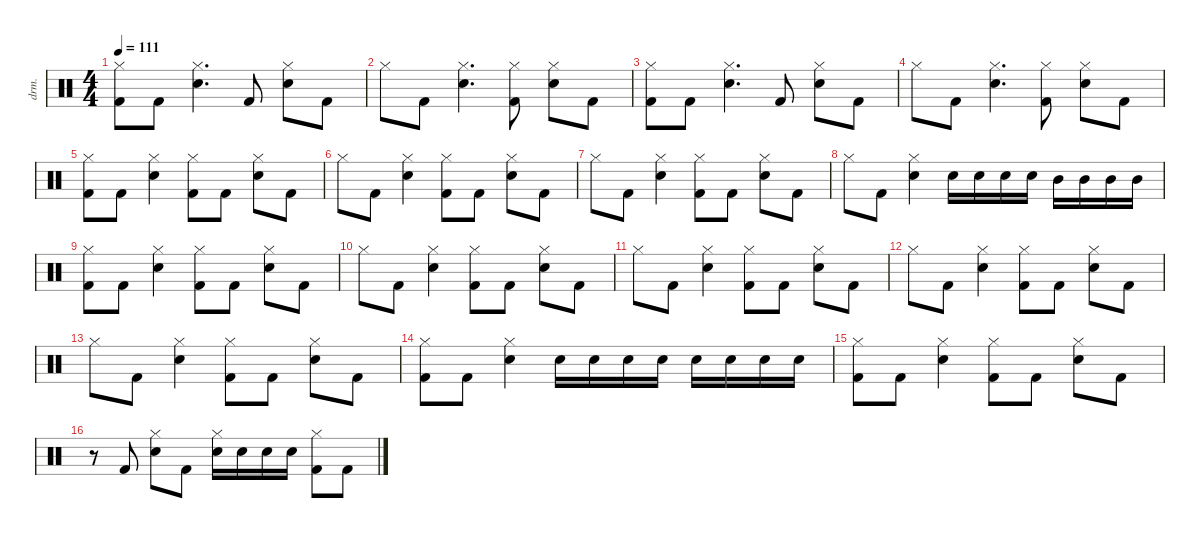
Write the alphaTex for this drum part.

\defaultSystemsLayout 4
\hideDynamics
\bracketExtendMode nobrackets
\otherSystemsTrackNameOrientation horizontal
\track ("Drums" "drm.") {instrument percussion}
\staff {score}
\articulation defaults
\ts (4 4)
\tempo 111
\clef neutral
\ks c
("Kick (hit) 2" "Hi-Hat (closed)").8{dy f} "Kick (hit) 2".8 ("Snare (hit) 2" "Hi-Hat (closed)").4{d} "Kick (hit) 2".8 ("Snare (hit) 2" "Hi-Hat (closed)").8 "Kick (hit) 2".8 |
"Hi-Hat (closed)".8 "Kick (hit) 2".8 ("Snare (hit) 2" "Hi-Hat (closed)").4{d} ("Kick (hit) 2" "Hi-Hat (closed)").8 ("Snare (hit) 2" "Hi-Hat (closed)").8 "Kick (hit) 2".8 |
("Kick (hit) 2" "Hi-Hat (closed)").8 "Kick (hit) 2".8 ("Snare (hit) 2" "Hi-Hat (closed)").4{d} "Kick (hit) 2".8 ("Snare (hit) 2" "Hi-Hat (closed)").8 "Kick (hit) 2".8 |
"Hi-Hat (closed)".8 "Kick (hit) 2".8 ("Snare (hit) 2" "Hi-Hat (closed)").4{d} ("Kick (hit) 2" "Hi-Hat (closed)").8 ("Snare (hit) 2" "Hi-Hat (closed)").8 "Kick (hit) 2".8 |
("Kick (hit) 2" "Hi-Hat (closed)").8 "Kick (hit) 2".8 ("Snare (hit) 2" "Hi-Hat (closed)").4 ("Kick (hit) 2" "Hi-Hat (closed)").8 "Kick (hit) 2".8 ("Snare (hit) 2" "Hi-Hat (closed)").8 "Kick (hit) 2".8 |
"Hi-Hat (closed)".8 "Kick (hit) 2".8 ("Snare (hit) 2" "Hi-Hat (closed)").4 ("Kick (hit) 2" "Hi-Hat (closed)").8 "Kick (hit) 2".8 ("Snare (hit) 2" "Hi-Hat (closed)").8 "Kick (hit) 2".8 |
"Hi-Hat (closed)".8 "Kick (hit) 2".8 ("Snare (hit) 2" "Hi-Hat (closed)").4 ("Kick (hit) 2" "Hi-Hat (closed)").8 "Kick (hit) 2".8 ("Snare (hit) 2" "Hi-Hat (closed)").8 "Kick (hit) 2".8 |
"Hi-Hat (closed)".8 "Kick (hit) 2".8 ("Snare (hit) 2" "Hi-Hat (closed)").4 "Snare (hit) 2".16 "Snare (hit) 2".16 "Snare (hit) 2".16 "Snare (hit) 2".16 "Mid Tom (hit)".16 "Mid Tom (hit)".16 "Mid Tom (hit)".16 "Mid Tom (hit)".16 |
("Kick (hit) 2" "Hi-Hat (closed)").8 "Kick (hit) 2".8 ("Snare (hit) 2" "Hi-Hat (closed)").4 ("Kick (hit) 2" "Hi-Hat (closed)").8 "Kick (hit) 2".8 ("Snare (hit) 2" "Hi-Hat (closed)").8 "Kick (hit) 2".8 |
"Hi-Hat (closed)".8 "Kick (hit) 2".8 ("Snare (hit) 2" "Hi-Hat (closed)").4 ("Kick (hit) 2" "Hi-Hat (closed)").8 "Kick (hit) 2".8 ("Snare (hit) 2" "Hi-Hat (closed)").8 "Kick (hit) 2".8 |
"Hi-Hat (closed)".8 "Kick (hit) 2".8 ("Snare (hit) 2" "Hi-Hat (closed)").4 ("Kick (hit) 2" "Hi-Hat (closed)").8 "Kick (hit) 2".8 ("Snare (hit) 2" "Hi-Hat (closed)").8 "Kick (hit) 2".8 |
"Hi-Hat (closed)".8 "Kick (hit) 2".8 ("Snare (hit) 2" "Hi-Hat (closed)").4 ("Kick (hit) 2" "Hi-Hat (closed)").8 "Kick (hit) 2".8 ("Snare (hit) 2" "Hi-Hat (closed)").8 "Kick (hit) 2".8 |
"Hi-Hat (closed)".8 "Kick (hit) 2".8 ("Snare (hit) 2" "Hi-Hat (closed)").4 ("Kick (hit) 2" "Hi-Hat (closed)").8 "Kick (hit) 2".8 ("Snare (hit) 2" "Hi-Hat (closed)").8 "Kick (hit) 2".8 |
("Kick (hit) 2" "Hi-Hat (closed)").8 "Kick (hit) 2".8 ("Snare (hit) 2" "Hi-Hat (closed)").4 "Snare (hit) 2".16 "Snare (hit) 2".16 "Snare (hit) 2".16 "Snare (hit) 2".16 "Snare (hit) 2".16 "Snare (hit) 2".16 "Snare (hit) 2".16 "Snare (hit) 2".16 |
("Kick (hit) 2" "Hi-Hat (closed)").8 "Kick (hit) 2".8 ("Snare (hit) 2" "Hi-Hat (closed)").4 ("Kick (hit) 2" "Hi-Hat (closed)").8 "Kick (hit) 2".8 ("Snare (hit) 2" "Hi-Hat (closed)").8 "Kick (hit) 2".8 |
r.8 "Kick (hit) 2".8 ("Snare (hit) 2" "Hi-Hat (closed)").8 "Kick (hit) 2".8 ("Snare (hit) 2" "Hi-Hat (closed)").16 "Snare (hit) 2".16 "Snare (hit) 2".16 "Snare (hit) 2".16 ("Kick (hit) 2" "Hi-Hat (closed)").8 "Kick (hit) 2".8
